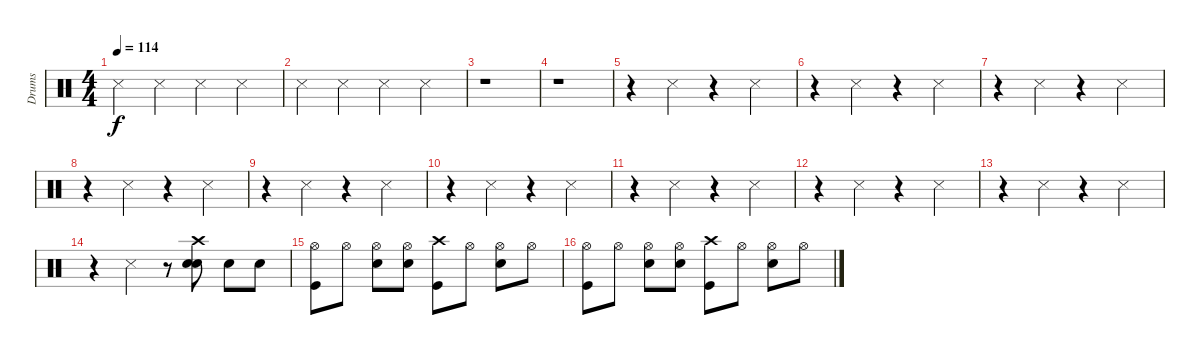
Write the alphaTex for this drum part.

\track ("Drums" "Drums") {instrument percussion}
\staff {score}
\articulation defaults
\ts (4 4)
\tempo 114
\clef neutral
\ks c "Snare (side stick) 3".4{dy f} "Snare (side stick) 3".4 "Snare (side stick) 3".4 "Snare (side stick) 3".4
|
"Snare (side stick) 3".4 "Snare (side stick) 3".4 "Snare (side stick) 3".4 "Snare (side stick) 3".4 |
r.1 |
r.1 |
r.4 "Snare (side stick) 3".4 r.4 "Snare (side stick) 3".4 |
r.4 "Snare (side stick) 3".4 r.4 "Snare (side stick) 3".4 |
r.4 "Snare (side stick) 3".4 r.4 "Snare (side stick) 3".4 |
r.4 "Snare (side stick) 3".4 r.4 "Snare (side stick) 3".4 |
r.4 "Snare (side stick) 3".4 r.4 "Snare (side stick) 3".4 |
r.4 "Snare (side stick) 3".4 r.4 "Snare (side stick) 3".4 |
r.4 "Snare (side stick) 3".4 r.4 "Snare (side stick) 3".4 |
r.4 "Snare (side stick) 3".4 r.4 "Snare (side stick) 3".4 |
r.4 "Snare (side stick) 3".4 r.4 "Snare (side stick) 3".4 |
r.4 "Snare (side stick) 3".4 r.8 ("Crash high (hit)" "Snare (hit) 2" "Snare (hit) 2").8 "Snare (hit) 2".8 "Snare (hit) 2".8 |
("Hi-Hat (open)" "Kick (hit)").8 "Hi-Hat (open)".8 ("Hi-Hat (open)" "Snare (hit) 2").8 ("Hi-Hat (open)" "Snare (hit) 2").8 ("Crash high (hit)" "Kick (hit)").8 "Hi-Hat (open)".8 ("Hi-Hat (open)" "Snare (hit) 2").8 "Hi-Hat (open)".8 |
("Hi-Hat (open)" "Kick (hit)").8 "Hi-Hat (open)".8 ("Hi-Hat (open)" "Snare (hit) 2").8 ("Hi-Hat (open)" "Snare (hit) 2").8 ("Crash high (hit)" "Kick (hit)").8 "Hi-Hat (open)".8 ("Hi-Hat (open)" "Snare (hit) 2").8 "Hi-Hat (open)".8
